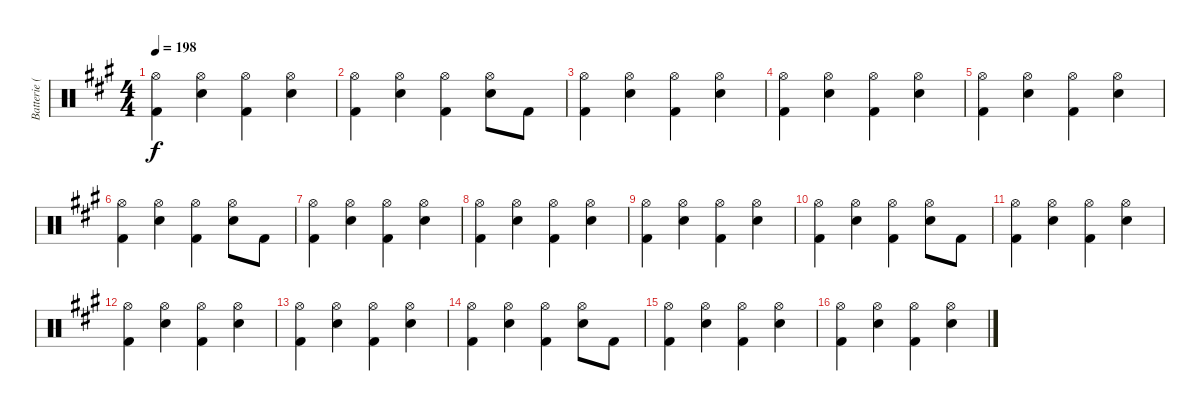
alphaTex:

\track ("Batterie (Phil Roud)" "Batterie (") {instrument percussion}
\staff {score}
\articulation defaults
\ts (4 4)
\tempo 198
\clef neutral
\ks a
("Hi-Hat (open)" "Kick (hit) 2").4{dy f} ("Hi-Hat (open)" "Snare (hit) 2").4 ("Hi-Hat (open)" "Kick (hit) 2").4 ("Hi-Hat (open)" "Snare (hit) 2").4 |
("Hi-Hat (open)" "Kick (hit) 2").4 ("Hi-Hat (open)" "Snare (hit) 2").4 ("Hi-Hat (open)" "Kick (hit) 2").4 ("Hi-Hat (open)" "Snare (hit) 2").8 "Kick (hit) 2".8 |
("Hi-Hat (open)" "Kick (hit) 2").4 ("Hi-Hat (open)" "Snare (hit) 2").4 ("Hi-Hat (open)" "Kick (hit) 2").4 ("Hi-Hat (open)" "Snare (hit) 2").4 |
("Hi-Hat (open)" "Kick (hit) 2").4 ("Hi-Hat (open)" "Snare (hit) 2").4 ("Hi-Hat (open)" "Kick (hit) 2").4 ("Hi-Hat (open)" "Snare (hit) 2").4 |
("Hi-Hat (open)" "Kick (hit) 2").4 ("Hi-Hat (open)" "Snare (hit) 2").4 ("Hi-Hat (open)" "Kick (hit) 2").4 ("Hi-Hat (open)" "Snare (hit) 2").4 |
("Hi-Hat (open)" "Kick (hit) 2").4 ("Hi-Hat (open)" "Snare (hit) 2").4 ("Hi-Hat (open)" "Kick (hit) 2").4 ("Hi-Hat (open)" "Snare (hit) 2").8 "Kick (hit) 2".8 |
("Hi-Hat (open)" "Kick (hit) 2").4 ("Hi-Hat (open)" "Snare (hit) 2").4 ("Hi-Hat (open)" "Kick (hit) 2").4 ("Hi-Hat (open)" "Snare (hit) 2").4 |
("Hi-Hat (open)" "Kick (hit) 2").4 ("Hi-Hat (open)" "Snare (hit) 2").4 ("Hi-Hat (open)" "Kick (hit) 2").4 ("Hi-Hat (open)" "Snare (hit) 2").4 |
("Hi-Hat (open)" "Kick (hit) 2").4 ("Hi-Hat (open)" "Snare (hit) 2").4 ("Hi-Hat (open)" "Kick (hit) 2").4 ("Hi-Hat (open)" "Snare (hit) 2").4 |
("Hi-Hat (open)" "Kick (hit) 2").4 ("Hi-Hat (open)" "Snare (hit) 2").4 ("Hi-Hat (open)" "Kick (hit) 2").4 ("Hi-Hat (open)" "Snare (hit) 2").8 "Kick (hit) 2".8 |
("Hi-Hat (open)" "Kick (hit) 2").4 ("Hi-Hat (open)" "Snare (hit) 2").4 ("Hi-Hat (open)" "Kick (hit) 2").4 ("Hi-Hat (open)" "Snare (hit) 2").4 |
("Hi-Hat (open)" "Kick (hit) 2").4 ("Hi-Hat (open)" "Snare (hit) 2").4 ("Hi-Hat (open)" "Kick (hit) 2").4 ("Hi-Hat (open)" "Snare (hit) 2").4 |
("Hi-Hat (open)" "Kick (hit) 2").4 ("Hi-Hat (open)" "Snare (hit) 2").4 ("Hi-Hat (open)" "Kick (hit) 2").4 ("Hi-Hat (open)" "Snare (hit) 2").4 |
("Hi-Hat (open)" "Kick (hit) 2").4 ("Hi-Hat (open)" "Snare (hit) 2").4 ("Hi-Hat (open)" "Kick (hit) 2").4 ("Hi-Hat (open)" "Snare (hit) 2").8 "Kick (hit) 2".8 |
("Hi-Hat (open)" "Kick (hit) 2").4 ("Hi-Hat (open)" "Snare (hit) 2").4 ("Hi-Hat (open)" "Kick (hit) 2").4 ("Hi-Hat (open)" "Snare (hit) 2").4 |
("Hi-Hat (open)" "Kick (hit) 2").4 ("Hi-Hat (open)" "Snare (hit) 2").4 ("Hi-Hat (open)" "Kick (hit) 2").4 ("Hi-Hat (open)" "Snare (hit) 2").4
